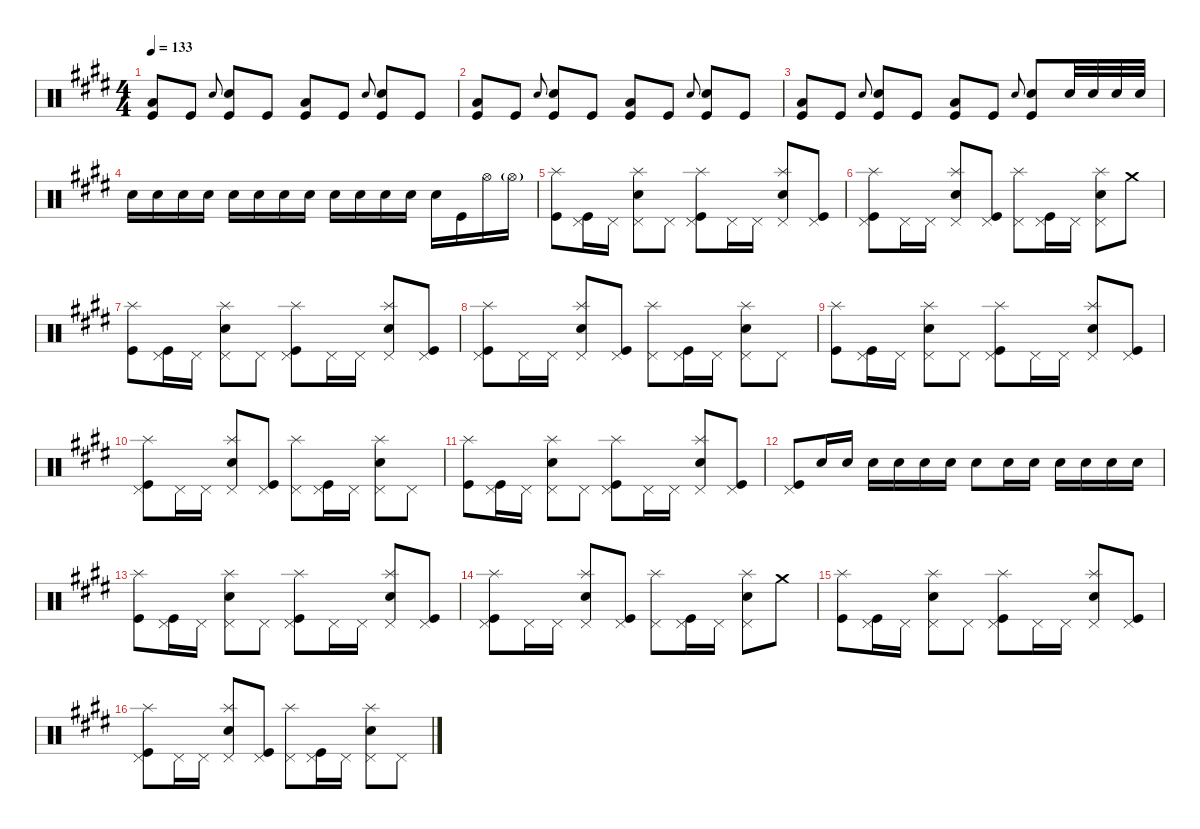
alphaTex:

\defaultSystemsLayout 4
\hideDynamics
\bracketExtendMode nobrackets
\singleTrackTrackNamePolicy hidden
\multiTrackTrackNamePolicy hidden
\firstSystemTrackNameMode fullname
\firstSystemTrackNameOrientation horizontal
\otherSystemsTrackNameOrientation horizontal
\track ("RVP" "drm.") {instrument percussion}
\staff {score}
\articulation defaults
\ts (4 4)
\tempo 133
\clef neutral
\ks e
("Low Floor Tom (hit)"{acc forcenatural} "Kick (hit)"{acc forcenatural}).8{dy f beam Up} "Kick (hit)"{acc forcenatural}.8{dy fff beam Up} "Snare (hit) 2"{acc forcenatural}.8{gr onbeat dy ff beam Up} ("Snare (hit) 2"{acc forcenatural} "Kick (hit)"{acc forcenatural}).8{dy fff beam Up} "Kick (hit)"{acc forcenatural}.8{beam Up} ("Low Floor Tom (hit)"{acc forcenatural} "Kick (hit)"{acc forcenatural}).8{dy f beam Up} "Kick (hit)"{acc forcenatural}.8{dy fff beam Up} "Snare (hit) 2"{acc forcenatural}.8{gr onbeat dy ff beam Up} ("Snare (hit) 2"{acc forcenatural} "Kick (hit)"{acc forcenatural}).8{dy fff beam Up} "Kick (hit)"{acc forcenatural}.8{beam Up} |
("Low Floor Tom (hit)"{acc forcenatural} "Kick (hit)"{acc forcenatural}).8{dy f beam Up} "Kick (hit)"{acc forcenatural}.8{dy fff beam Up} "Snare (hit) 2"{acc forcenatural}.8{gr onbeat dy ff beam Up} ("Snare (hit) 2"{acc forcenatural} "Kick (hit)"{acc forcenatural}).8{dy fff beam Up} "Kick (hit)"{acc forcenatural}.8{beam Up} ("Low Floor Tom (hit)"{acc forcenatural} "Kick (hit)"{acc forcenatural}).8{dy f beam Up} "Kick (hit)"{acc forcenatural}.8{dy fff beam Up} "Snare (hit) 2"{acc forcenatural}.8{gr onbeat dy ff beam Up} ("Snare (hit) 2"{acc forcenatural} "Kick (hit)"{acc forcenatural}).8{dy fff beam Up} "Kick (hit)"{acc forcenatural}.8{beam Up} |
("Low Floor Tom (hit)"{acc forcenatural} "Kick (hit)"{acc forcenatural}).8{dy f beam Up} "Kick (hit)"{acc forcenatural}.8{dy fff beam Up} "Snare (hit) 2"{acc forcenatural}.8{gr onbeat dy ff beam Up} ("Snare (hit) 2"{acc forcenatural} "Kick (hit)"{acc forcenatural}).8{dy fff beam Up} "Kick (hit)"{acc forcenatural}.8{beam Up} ("Low Floor Tom (hit)"{acc forcenatural} "Kick (hit)"{acc forcenatural}).8{dy f beam Up} "Kick (hit)"{acc forcenatural}.8{dy fff beam Up} "Snare (hit) 2"{acc forcenatural}.8{gr onbeat dy ff beam Up} ("Snare (hit) 2"{acc forcenatural} "Kick (hit)"{acc forcenatural}).8{dy fff beam Up} "Snare (hit) 2"{acc forcenatural}.32{dy mf beam Up} "Snare (hit) 2"{acc forcenatural}.32{beam Up} "Snare (hit) 2"{acc forcenatural}.32{beam Up} "Snare (hit) 2"{acc forcenatural}.32{beam Up} |
"Snare (hit) 2"{acc forcenatural}.16{dy fff beam Down} "Snare (hit) 2"{acc forcenatural}.16{beam Down} "Snare (hit) 2"{acc forcenatural}.16{beam Down} "Snare (hit) 2"{acc forcenatural}.16{beam Down} "Snare (hit) 2"{acc forcenatural}.16{beam Down} "Snare (hit) 2"{acc forcenatural}.16{beam Down} "Snare (hit) 2"{acc forcenatural}.16{beam Down} "Snare (hit) 2"{acc forcenatural}.16{beam Down} "Snare (hit) 2"{acc forcenatural}.16{beam Down} "Snare (hit) 2"{acc forcenatural}.16{beam Down} "Snare (hit) 2"{acc forcenatural}.16{beam Down} "Snare (hit) 2"{acc forcenatural}.16{beam Down} "Snare (hit) 2"{acc forcenatural}.16{beam Down} "Kick (hit)"{acc forcenatural}.16{beam Down} "Hi-Hat (open)"{acc forcenatural}.16{beam Down} "Hi-Hat (open)"{g acc forcenatural}.16{dy pp beam Down} |
("Splash (hit)"{acc forcenatural} "Kick (hit)"{acc forcenatural}).8{dy f beam Down} ("Pedal Hi-Hat (hit)"{acc forcenatural} "Kick (hit)"{acc forcenatural}).16{beam Down} "Pedal Hi-Hat (hit)"{acc forcenatural}.16{beam Down} ("Snare (hit) 2"{acc forcenatural} "Pedal Hi-Hat (hit)"{acc forcenatural} "Splash (hit)"{acc forcenatural}).8{dy fff beam Down} "Pedal Hi-Hat (hit)"{acc forcenatural}.8{dy f beam Down} ("Pedal Hi-Hat (hit)"{acc forcenatural} "Splash (hit)"{acc forcenatural} "Kick (hit)"{acc forcenatural}).8{beam Down} "Pedal Hi-Hat (hit)"{acc forcenatural}.16{beam Down} "Pedal Hi-Hat (hit)"{acc forcenatural}.16{beam Down} ("Snare (hit) 2"{acc forcenatural} "Pedal Hi-Hat (hit)"{acc forcenatural} "Splash (hit)"{acc forcenatural}).8{dy fff beam Up} ("Pedal Hi-Hat (hit)"{acc forcenatural} "Kick (hit)"{acc forcenatural}).8{dy f beam Up} |
("Pedal Hi-Hat (hit)"{acc forcenatural} "Splash (hit)"{acc forcenatural} "Kick (hit)"{acc forcenatural}).8{beam Down} "Pedal Hi-Hat (hit)"{acc forcenatural}.16{beam Down} "Pedal Hi-Hat (hit)"{acc forcenatural}.16{beam Down} ("Snare (hit) 2"{acc forcenatural} "Pedal Hi-Hat (hit)"{acc forcenatural} "Splash (hit)"{acc forcenatural}).8{dy fff beam Up} ("Pedal Hi-Hat (hit)"{acc forcenatural} "Kick (hit)"{acc forcenatural}).8{dy f beam Up} ("Pedal Hi-Hat (hit)"{acc forcenatural} "Splash (hit)"{acc forcenatural}).8{beam Down} ("Pedal Hi-Hat (hit)"{acc forcenatural} "Kick (hit)"{acc forcenatural}).16{beam Down} "Pedal Hi-Hat (hit)"{acc forcenatural}.16{beam Down} ("Snare (hit) 2"{acc forcenatural} "Pedal Hi-Hat (hit)"{acc forcenatural} "Splash (hit)"{acc forcenatural}).8{dy fff beam Down} "Crash medium (hit)"{acc forcenatural}.8{dy f beam Down} |
("Splash (hit)"{acc forcenatural} "Kick (hit)"{acc forcenatural}).8{beam Down} ("Pedal Hi-Hat (hit)"{acc forcenatural} "Kick (hit)"{acc forcenatural}).16{beam Down} "Pedal Hi-Hat (hit)"{acc forcenatural}.16{beam Down} ("Snare (hit) 2"{acc forcenatural} "Pedal Hi-Hat (hit)"{acc forcenatural} "Splash (hit)"{acc forcenatural}).8{dy fff beam Down} "Pedal Hi-Hat (hit)"{acc forcenatural}.8{dy f beam Down} ("Pedal Hi-Hat (hit)"{acc forcenatural} "Splash (hit)"{acc forcenatural} "Kick (hit)"{acc forcenatural}).8{beam Down} "Pedal Hi-Hat (hit)"{acc forcenatural}.16{beam Down} "Pedal Hi-Hat (hit)"{acc forcenatural}.16{beam Down} ("Snare (hit) 2"{acc forcenatural} "Pedal Hi-Hat (hit)"{acc forcenatural} "Splash (hit)"{acc forcenatural}).8{dy fff beam Up} ("Pedal Hi-Hat (hit)"{acc forcenatural} "Kick (hit)"{acc forcenatural}).8{dy f beam Up} |
("Pedal Hi-Hat (hit)"{acc forcenatural} "Splash (hit)"{acc forcenatural} "Kick (hit)"{acc forcenatural}).8{beam Down} "Pedal Hi-Hat (hit)"{acc forcenatural}.16{beam Down} "Pedal Hi-Hat (hit)"{acc forcenatural}.16{beam Down} ("Snare (hit) 2"{acc forcenatural} "Pedal Hi-Hat (hit)"{acc forcenatural} "Splash (hit)"{acc forcenatural}).8{dy fff beam Up} ("Pedal Hi-Hat (hit)"{acc forcenatural} "Kick (hit)"{acc forcenatural}).8{dy f beam Up} ("Pedal Hi-Hat (hit)"{acc forcenatural} "Splash (hit)"{acc forcenatural}).8{beam Down} ("Pedal Hi-Hat (hit)"{acc forcenatural} "Kick (hit)"{acc forcenatural}).16{beam Down} "Pedal Hi-Hat (hit)"{acc forcenatural}.16{beam Down} ("Snare (hit) 2"{acc forcenatural} "Pedal Hi-Hat (hit)"{acc forcenatural} "Splash (hit)"{acc forcenatural}).8{dy fff beam Down} "Pedal Hi-Hat (hit)"{acc forcenatural}.8{dy f beam Down} |
("Splash (hit)"{acc forcenatural} "Kick (hit)"{acc forcenatural}).8{beam Down} ("Pedal Hi-Hat (hit)"{acc forcenatural} "Kick (hit)"{acc forcenatural}).16{beam Down} "Pedal Hi-Hat (hit)"{acc forcenatural}.16{beam Down} ("Snare (hit) 2"{acc forcenatural} "Pedal Hi-Hat (hit)"{acc forcenatural} "Splash (hit)"{acc forcenatural}).8{dy fff beam Down} "Pedal Hi-Hat (hit)"{acc forcenatural}.8{dy f beam Down} ("Pedal Hi-Hat (hit)"{acc forcenatural} "Splash (hit)"{acc forcenatural} "Kick (hit)"{acc forcenatural}).8{beam Down} "Pedal Hi-Hat (hit)"{acc forcenatural}.16{beam Down} "Pedal Hi-Hat (hit)"{acc forcenatural}.16{beam Down} ("Snare (hit) 2"{acc forcenatural} "Pedal Hi-Hat (hit)"{acc forcenatural} "Splash (hit)"{acc forcenatural}).8{dy fff beam Up} ("Pedal Hi-Hat (hit)"{acc forcenatural} "Kick (hit)"{acc forcenatural}).8{dy f beam Up} |
("Pedal Hi-Hat (hit)"{acc forcenatural} "Splash (hit)"{acc forcenatural} "Kick (hit)"{acc forcenatural}).8{beam Down} "Pedal Hi-Hat (hit)"{acc forcenatural}.16{beam Down} "Pedal Hi-Hat (hit)"{acc forcenatural}.16{beam Down} ("Snare (hit) 2"{acc forcenatural} "Pedal Hi-Hat (hit)"{acc forcenatural} "Splash (hit)"{acc forcenatural}).8{dy fff beam Up} ("Pedal Hi-Hat (hit)"{acc forcenatural} "Kick (hit)"{acc forcenatural}).8{dy f beam Up} ("Pedal Hi-Hat (hit)"{acc forcenatural} "Splash (hit)"{acc forcenatural}).8{beam Down} ("Pedal Hi-Hat (hit)"{acc forcenatural} "Kick (hit)"{acc forcenatural}).16{beam Down} "Pedal Hi-Hat (hit)"{acc forcenatural}.16{beam Down} ("Snare (hit) 2"{acc forcenatural} "Pedal Hi-Hat (hit)"{acc forcenatural} "Splash (hit)"{acc forcenatural}).8{dy fff beam Down} "Pedal Hi-Hat (hit)"{acc forcenatural}.8{dy f beam Down} |
("Splash (hit)"{acc forcenatural} "Kick (hit)"{acc forcenatural}).8{beam Down} ("Pedal Hi-Hat (hit)"{acc forcenatural} "Kick (hit)"{acc forcenatural}).16{beam Down} "Pedal Hi-Hat (hit)"{acc forcenatural}.16{beam Down} ("Snare (hit) 2"{acc forcenatural} "Pedal Hi-Hat (hit)"{acc forcenatural} "Splash (hit)"{acc forcenatural}).8{dy fff beam Down} "Pedal Hi-Hat (hit)"{acc forcenatural}.8{dy f beam Down} ("Pedal Hi-Hat (hit)"{acc forcenatural} "Splash (hit)"{acc forcenatural} "Kick (hit)"{acc forcenatural}).8{beam Down} "Pedal Hi-Hat (hit)"{acc forcenatural}.16{beam Down} "Pedal Hi-Hat (hit)"{acc forcenatural}.16{beam Down} ("Snare (hit) 2"{acc forcenatural} "Pedal Hi-Hat (hit)"{acc forcenatural} "Splash (hit)"{acc forcenatural}).8{dy fff beam Up} ("Pedal Hi-Hat (hit)"{acc forcenatural} "Kick (hit)"{acc forcenatural}).8{dy f beam Up} |
("Pedal Hi-Hat (hit)"{acc forcenatural} "Kick (hit)"{acc forcenatural}).8{beam Up} "Snare (hit) 2"{acc forcenatural}.16{dy fff beam Up} "Snare (hit) 2"{acc forcenatural}.16{beam Up} "Snare (hit) 2"{acc forcenatural}.16{beam Down} "Snare (hit) 2"{acc forcenatural}.16{beam Down} "Snare (hit) 2"{acc forcenatural}.16{beam Down} "Snare (hit) 2"{acc forcenatural}.16{beam Down} "Snare (hit) 2"{acc forcenatural}.8{beam Down} "Snare (hit) 2"{acc forcenatural}.16{beam Down} "Snare (hit) 2"{acc forcenatural}.16{beam Down} "Snare (hit) 2"{acc forcenatural}.16{beam Down} "Snare (hit) 2"{acc forcenatural}.16{beam Down} "Snare (hit) 2"{acc forcenatural}.16{beam Down} "Snare (hit) 2"{acc forcenatural}.16{beam Down} |
("Splash (hit)"{acc forcenatural} "Kick (hit)"{acc forcenatural}).8{dy f beam Down} ("Pedal Hi-Hat (hit)"{acc forcenatural} "Kick (hit)"{acc forcenatural}).16{beam Down} "Pedal Hi-Hat (hit)"{acc forcenatural}.16{beam Down} ("Snare (hit) 2"{acc forcenatural} "Pedal Hi-Hat (hit)"{acc forcenatural} "Splash (hit)"{acc forcenatural}).8{dy fff beam Down} "Pedal Hi-Hat (hit)"{acc forcenatural}.8{dy f beam Down} ("Pedal Hi-Hat (hit)"{acc forcenatural} "Splash (hit)"{acc forcenatural} "Kick (hit)"{acc forcenatural}).8{beam Down} "Pedal Hi-Hat (hit)"{acc forcenatural}.16{beam Down} "Pedal Hi-Hat (hit)"{acc forcenatural}.16{beam Down} ("Snare (hit) 2"{acc forcenatural} "Pedal Hi-Hat (hit)"{acc forcenatural} "Splash (hit)"{acc forcenatural}).8{dy fff beam Up} ("Pedal Hi-Hat (hit)"{acc forcenatural} "Kick (hit)"{acc forcenatural}).8{dy f beam Up} |
("Pedal Hi-Hat (hit)"{acc forcenatural} "Splash (hit)"{acc forcenatural} "Kick (hit)"{acc forcenatural}).8{beam Down} "Pedal Hi-Hat (hit)"{acc forcenatural}.16{beam Down} "Pedal Hi-Hat (hit)"{acc forcenatural}.16{beam Down} ("Snare (hit) 2"{acc forcenatural} "Pedal Hi-Hat (hit)"{acc forcenatural} "Splash (hit)"{acc forcenatural}).8{dy fff beam Up} ("Pedal Hi-Hat (hit)"{acc forcenatural} "Kick (hit)"{acc forcenatural}).8{dy f beam Up} ("Pedal Hi-Hat (hit)"{acc forcenatural} "Splash (hit)"{acc forcenatural}).8{beam Down} ("Pedal Hi-Hat (hit)"{acc forcenatural} "Kick (hit)"{acc forcenatural}).16{beam Down} "Pedal Hi-Hat (hit)"{acc forcenatural}.16{beam Down} ("Snare (hit) 2"{acc forcenatural} "Pedal Hi-Hat (hit)"{acc forcenatural} "Splash (hit)"{acc forcenatural}).8{dy fff beam Down} "Crash medium (hit)"{acc forcenatural}.8{dy f beam Down} |
("Splash (hit)"{acc forcenatural} "Kick (hit)"{acc forcenatural}).8{beam Down} ("Pedal Hi-Hat (hit)"{acc forcenatural} "Kick (hit)"{acc forcenatural}).16{beam Down} "Pedal Hi-Hat (hit)"{acc forcenatural}.16{beam Down} ("Snare (hit) 2"{acc forcenatural} "Pedal Hi-Hat (hit)"{acc forcenatural} "Splash (hit)"{acc forcenatural}).8{dy fff beam Down} "Pedal Hi-Hat (hit)"{acc forcenatural}.8{dy f beam Down} ("Pedal Hi-Hat (hit)"{acc forcenatural} "Splash (hit)"{acc forcenatural} "Kick (hit)"{acc forcenatural}).8{beam Down} "Pedal Hi-Hat (hit)"{acc forcenatural}.16{beam Down} "Pedal Hi-Hat (hit)"{acc forcenatural}.16{beam Down} ("Snare (hit) 2"{acc forcenatural} "Pedal Hi-Hat (hit)"{acc forcenatural} "Splash (hit)"{acc forcenatural}).8{dy fff beam Up} ("Pedal Hi-Hat (hit)"{acc forcenatural} "Kick (hit)"{acc forcenatural}).8{dy f beam Up} |
("Pedal Hi-Hat (hit)"{acc forcenatural} "Splash (hit)"{acc forcenatural} "Kick (hit)"{acc forcenatural}).8{beam Down} "Pedal Hi-Hat (hit)"{acc forcenatural}.16{beam Down} "Pedal Hi-Hat (hit)"{acc forcenatural}.16{beam Down} ("Snare (hit) 2"{acc forcenatural} "Pedal Hi-Hat (hit)"{acc forcenatural} "Splash (hit)"{acc forcenatural}).8{dy fff beam Up} ("Pedal Hi-Hat (hit)"{acc forcenatural} "Kick (hit)"{acc forcenatural}).8{dy f beam Up} ("Pedal Hi-Hat (hit)"{acc forcenatural} "Splash (hit)"{acc forcenatural}).8{beam Down} ("Pedal Hi-Hat (hit)"{acc forcenatural} "Kick (hit)"{acc forcenatural}).16{beam Down} "Pedal Hi-Hat (hit)"{acc forcenatural}.16{beam Down} ("Snare (hit) 2"{acc forcenatural} "Pedal Hi-Hat (hit)"{acc forcenatural} "Splash (hit)"{acc forcenatural}).8{dy fff beam Down} "Pedal Hi-Hat (hit)"{acc forcenatural}.8{dy f beam Down}
